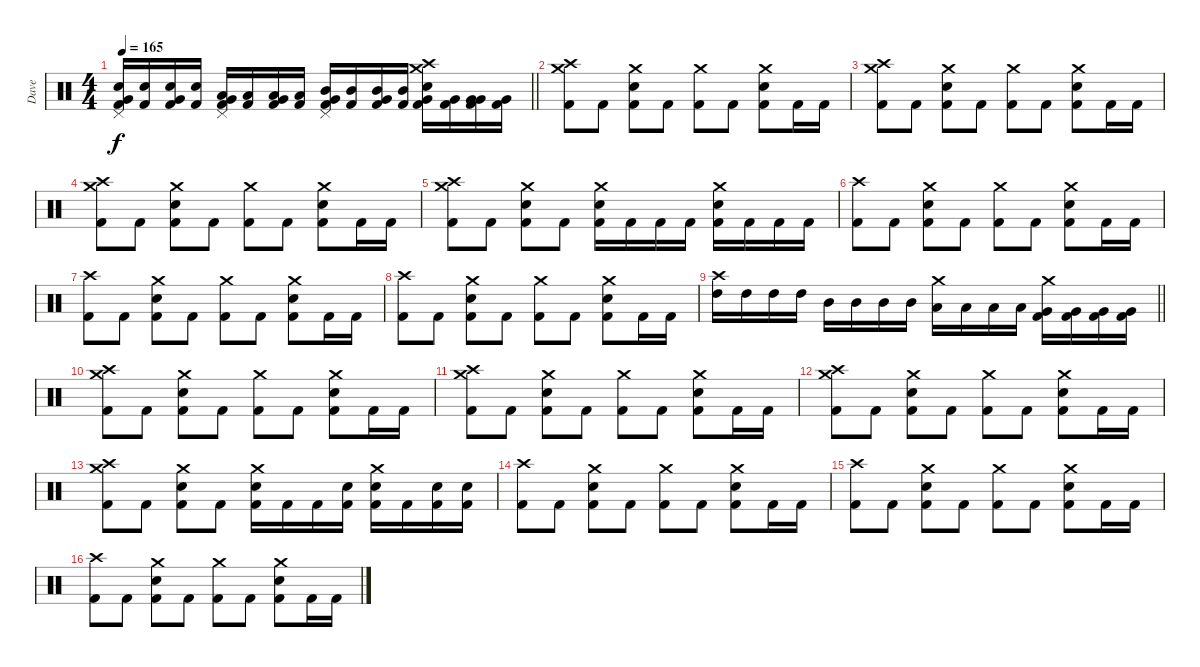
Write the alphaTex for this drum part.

\track ("Dave" "Dave") {mute instrument percussion}
\staff
\articulation defaults
\ts (4 4)
\tempo 165
\clef neutral
\barLineRight lightlight
\ks c
("Pedal Hi-Hat (hit)" "Snare (hit) 2" "Very Low Tom (hit)" "Kick (hit) 2").16{dy f} ("Snare (hit) 2" "Kick (hit) 2").16 ("Snare (hit) 2" "Very Low Tom (hit)" "Kick (hit) 2").16 ("Snare (hit) 2" "Kick (hit) 2").16 ("Pedal Hi-Hat (hit)" "Low Tom (hit)" "Very Low Tom (hit)" "Kick (hit) 2").16 ("Low Tom (hit)" "Kick (hit) 2").16 ("Low Tom (hit)" "Very Low Tom (hit)" "Kick (hit) 2").16 ("Low Tom (hit)" "Kick (hit) 2").16 ("Pedal Hi-Hat (hit)" "Mid Tom (hit)" "Very Low Tom (hit)" "Kick (hit) 2").16 ("Mid Tom (hit)" "Kick (hit) 2").16 ("Mid Tom (hit)" "Very Low Tom (hit)" "Kick (hit) 2").16 ("Mid Tom (hit)" "Kick (hit) 2").16 ("Crash medium (hit)" "Crash high (hit)" "Snare (hit) 2" "Very Low Tom (hit)" "Kick (hit) 2").16 ("Very Low Tom (hit)" "Kick (hit) 2").16 ("Very Low Tom (hit)" "Very Low Tom (hit)" "Kick (hit) 2").16 ("Very Low Tom (hit)" "Kick (hit) 2").16 |
("Crash medium (hit)" "Crash high (hit)" "Kick (hit) 2").8 "Kick (hit) 2".8 ("Crash medium (hit)" "Snare (hit) 2" "Kick (hit) 2").8 "Kick (hit) 2".8 ("Crash medium (hit)" "Kick (hit) 2").8 "Kick (hit) 2".8 ("Crash medium (hit)" "Snare (hit) 2" "Kick (hit) 2").8 "Kick (hit) 2".16 "Kick (hit) 2".16 |
("Crash medium (hit)" "Crash high (hit)" "Kick (hit) 2").8 "Kick (hit) 2".8 ("Crash medium (hit)" "Snare (hit) 2" "Kick (hit) 2").8 "Kick (hit) 2".8 ("Crash medium (hit)" "Kick (hit) 2").8 "Kick (hit) 2".8 ("Crash medium (hit)" "Snare (hit) 2" "Kick (hit) 2").8 "Kick (hit) 2".16 "Kick (hit) 2".16 |
("Crash medium (hit)" "Crash high (hit)" "Kick (hit) 2").8 "Kick (hit) 2".8 ("Crash medium (hit)" "Snare (hit) 2" "Kick (hit) 2").8 "Kick (hit) 2".8 ("Crash medium (hit)" "Kick (hit) 2").8 "Kick (hit) 2".8 ("Crash medium (hit)" "Snare (hit) 2" "Kick (hit) 2").8 "Kick (hit) 2".16 "Kick (hit) 2".16 |
("Crash medium (hit)" "Crash high (hit)" "Kick (hit) 2").8 "Kick (hit) 2".8 ("Crash medium (hit)" "Snare (hit) 2" "Kick (hit) 2").8 "Kick (hit) 2".8 ("Crash medium (hit)" "Snare (hit) 2" "Kick (hit) 2").16 "Kick (hit) 2".16 "Kick (hit) 2".16 "Kick (hit) 2".16 ("Crash medium (hit)" "Snare (hit) 2" "Kick (hit) 2").16 "Kick (hit) 2".16 "Kick (hit) 2".16 "Kick (hit) 2".16 |
("Crash high (hit)" "Kick (hit) 2").8 "Kick (hit) 2".8 ("Crash medium (hit)" "Snare (hit) 2" "Kick (hit) 2").8 "Kick (hit) 2".8 ("Crash medium (hit)" "Kick (hit) 2").8 "Kick (hit) 2".8 ("Crash medium (hit)" "Snare (hit) 2" "Kick (hit) 2").8 "Kick (hit) 2".16 "Kick (hit) 2".16 |
("Crash high (hit)" "Kick (hit) 2").8 "Kick (hit) 2".8 ("Crash medium (hit)" "Snare (hit) 2" "Kick (hit) 2").8 "Kick (hit) 2".8 ("Crash medium (hit)" "Kick (hit) 2").8 "Kick (hit) 2".8 ("Crash medium (hit)" "Snare (hit) 2" "Kick (hit) 2").8 "Kick (hit) 2".16 "Kick (hit) 2".16 |
("Crash high (hit)" "Kick (hit) 2").8 "Kick (hit) 2".8 ("Crash medium (hit)" "Snare (hit) 2" "Kick (hit) 2").8 "Kick (hit) 2".8 ("Crash medium (hit)" "Kick (hit) 2").8 "Kick (hit) 2".8 ("Crash medium (hit)" "Snare (hit) 2" "Kick (hit) 2").8 "Kick (hit) 2".16 "Kick (hit) 2".16 |
\barLineRight lightlight
("Crash high (hit)" "High Tom (hit)").16 "High Tom (hit)".16 "High Tom (hit)".16 "High Tom (hit)".16 "Mid Tom (hit)".16 "Mid Tom (hit)".16 "Mid Tom (hit)".16 "Mid Tom (hit)".16 ("Crash medium (hit)" "Low Tom (hit)").16 "Low Tom (hit)".16 "Low Tom (hit)".16 "Low Tom (hit)".16 ("Crash medium (hit)" "Very Low Tom (hit)" "Kick (hit) 2").16 ("Very Low Tom (hit)" "Kick (hit) 2").16 ("Very Low Tom (hit)" "Kick (hit) 2").16 ("Very Low Tom (hit)" "Kick (hit) 2").16 |
("Crash medium (hit)" "Crash high (hit)" "Kick (hit) 2").8 "Kick (hit) 2".8 ("Crash medium (hit)" "Snare (hit) 2" "Kick (hit) 2").8 "Kick (hit) 2".8 ("Crash medium (hit)" "Kick (hit) 2").8 "Kick (hit) 2".8 ("Crash medium (hit)" "Snare (hit) 2" "Kick (hit) 2").8 "Kick (hit) 2".16 "Kick (hit) 2".16 |
("Crash medium (hit)" "Crash high (hit)" "Kick (hit) 2").8 "Kick (hit) 2".8 ("Crash medium (hit)" "Snare (hit) 2" "Kick (hit) 2").8 "Kick (hit) 2".8 ("Crash medium (hit)" "Kick (hit) 2").8 "Kick (hit) 2".8 ("Crash medium (hit)" "Snare (hit) 2" "Kick (hit) 2").8 "Kick (hit) 2".16 "Kick (hit) 2".16 |
("Crash medium (hit)" "Crash high (hit)" "Kick (hit) 2").8 "Kick (hit) 2".8 ("Crash medium (hit)" "Snare (hit) 2" "Kick (hit) 2").8 "Kick (hit) 2".8 ("Crash medium (hit)" "Kick (hit) 2").8 "Kick (hit) 2".8 ("Crash medium (hit)" "Snare (hit) 2" "Kick (hit) 2").8 "Kick (hit) 2".16 "Kick (hit) 2".16 |
("Crash medium (hit)" "Crash high (hit)" "Kick (hit) 2").8 "Kick (hit) 2".8 ("Crash medium (hit)" "Snare (hit) 2" "Kick (hit) 2").8 "Kick (hit) 2".8 ("Crash medium (hit)" "Snare (hit) 2" "Kick (hit) 2").16 "Kick (hit) 2".16 "Kick (hit) 2".16 ("Snare (hit) 2" "Kick (hit) 2").16 ("Crash medium (hit)" "Snare (hit) 2" "Kick (hit) 2").16 "Kick (hit) 2".16 ("Snare (hit) 2" "Kick (hit) 2").16 ("Snare (hit) 2" "Kick (hit) 2").16 |
("Crash high (hit)" "Kick (hit) 2").8 "Kick (hit) 2".8 ("Crash medium (hit)" "Snare (hit) 2" "Kick (hit) 2").8 "Kick (hit) 2".8 ("Crash medium (hit)" "Kick (hit) 2").8 "Kick (hit) 2".8 ("Crash medium (hit)" "Snare (hit) 2" "Kick (hit) 2").8 "Kick (hit) 2".16 "Kick (hit) 2".16 |
("Crash high (hit)" "Kick (hit) 2").8 "Kick (hit) 2".8 ("Crash medium (hit)" "Snare (hit) 2" "Kick (hit) 2").8 "Kick (hit) 2".8 ("Crash medium (hit)" "Kick (hit) 2").8 "Kick (hit) 2".8 ("Crash medium (hit)" "Snare (hit) 2" "Kick (hit) 2").8 "Kick (hit) 2".16 "Kick (hit) 2".16 |
("Crash high (hit)" "Kick (hit) 2").8 "Kick (hit) 2".8 ("Crash medium (hit)" "Snare (hit) 2" "Kick (hit) 2").8 "Kick (hit) 2".8 ("Crash medium (hit)" "Kick (hit) 2").8 "Kick (hit) 2".8 ("Crash medium (hit)" "Snare (hit) 2" "Kick (hit) 2").8 "Kick (hit) 2".16 "Kick (hit) 2".16
